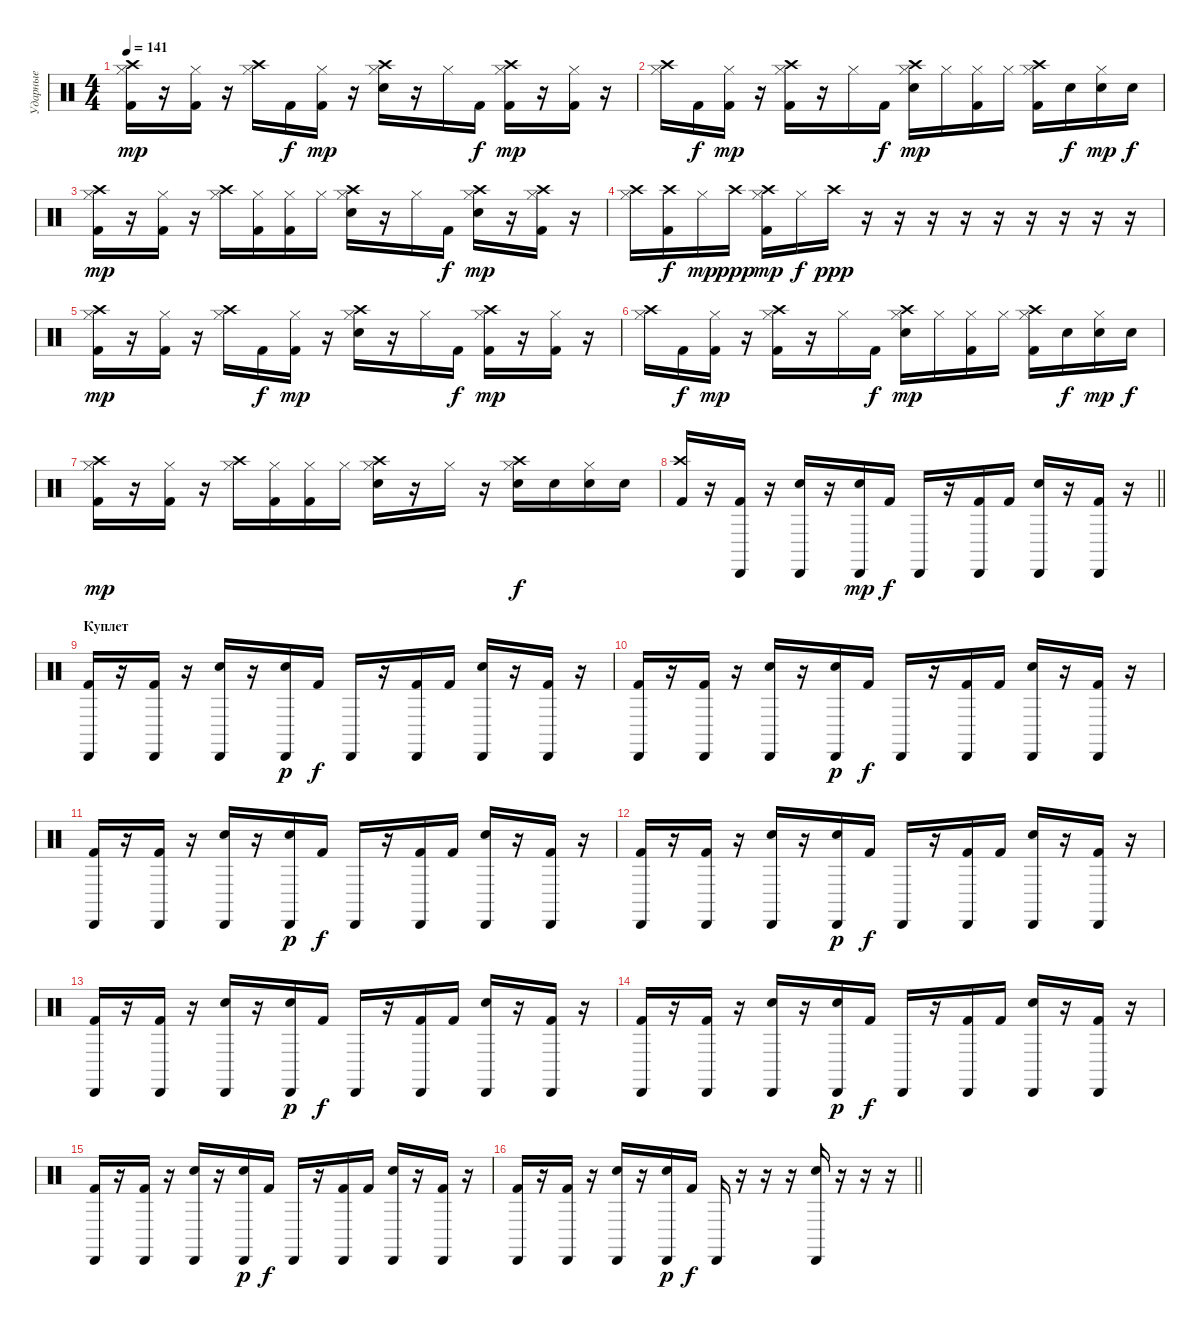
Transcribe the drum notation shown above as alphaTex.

\track ("Ударные" "Ударные") {instrument percussion}
\staff {score}
\articulation defaults
\ts (4 4)
\section ("" "")
\tempo 141
\clef neutral
\ks c
("Crash high (hit)" "Hi-Hat (closed)" "Kick (hit) 2").16{dy mp} r.16 ("Hi-Hat (closed)" "Kick (hit) 2").16 r.16 ("Crash high (hit)" "Hi-Hat (closed)").16 "Kick (hit) 2".16{dy f} ("Hi-Hat (closed)" "Kick (hit) 2").16{dy mp} r.16 ("Crash high (hit)" "Hi-Hat (closed)" "Electric Snare (hit)").16 r.16 "Hi-Hat (closed)".16 "Kick (hit) 2".16{dy f} ("Crash high (hit)" "Hi-Hat (closed)" "Kick (hit) 2").16{dy mp} r.16 ("Hi-Hat (closed)" "Kick (hit) 2").16 r.16 |
("Crash high (hit)" "Hi-Hat (closed)").16 "Kick (hit) 2".16{dy f} ("Hi-Hat (closed)" "Kick (hit) 2").16{dy mp} r.16 ("Crash high (hit)" "Hi-Hat (closed)" "Kick (hit) 2").16 r.16 "Hi-Hat (closed)".16 "Kick (hit) 2".16{dy f} ("Crash high (hit)" "Hi-Hat (closed)" "Electric Snare (hit)").16{dy mp} "Hi-Hat (closed)".16 ("Hi-Hat (closed)" "Kick (hit) 2").16 "Hi-Hat (closed)".16 ("Crash high (hit)" "Hi-Hat (closed)" "Kick (hit) 2").16 "Electric Snare (hit)".16{dy f} ("Hi-Hat (closed)" "Electric Snare (hit)").16{dy mp} "Electric Snare (hit)".16{dy f} |
("Crash high (hit)" "Hi-Hat (closed)" "Kick (hit) 2").16{dy mp} r.16 ("Hi-Hat (closed)" "Kick (hit) 2").16 r.16 ("Crash high (hit)" "Hi-Hat (closed)").16 ("Hi-Hat (closed)" "Kick (hit) 2").16 ("Hi-Hat (closed)" "Kick (hit) 2").16 "Hi-Hat (closed)".16 ("Crash high (hit)" "Hi-Hat (closed)" "Electric Snare (hit)").16 r.16 "Hi-Hat (closed)".16 "Kick (hit) 2".16{dy f} ("Crash high (hit)" "Hi-Hat (closed)" "Electric Snare (hit)").16{dy mp} r.16 ("Crash high (hit)" "Hi-Hat (closed)" "Kick (hit) 2").16 r.16 |
("Crash high (hit)" "Hi-Hat (closed)").16 ("Crash high (hit)" "Kick (hit) 2").16{dy f} "Hi-Hat (closed)".16{dy mp} "Crash high (hit)".16{dy ppp} ("Crash high (hit)" "Hi-Hat (closed)" "Kick (hit) 2").16{dy mp} "Hi-Hat (closed)".16{dy f} "Crash high (hit)".16{dy ppp} r.16 r.16 r.16 r.16 r.16 r.16 r.16 r.16 r.16 |
("Crash high (hit)" "Hi-Hat (closed)" "Kick (hit) 2").16{dy mp} r.16 ("Hi-Hat (closed)" "Kick (hit) 2").16 r.16 ("Crash high (hit)" "Hi-Hat (closed)").16 "Kick (hit) 2".16{dy f} ("Hi-Hat (closed)" "Kick (hit) 2").16{dy mp} r.16 ("Crash high (hit)" "Hi-Hat (closed)" "Electric Snare (hit)").16 r.16 "Hi-Hat (closed)".16 "Kick (hit) 2".16{dy f} ("Crash high (hit)" "Hi-Hat (closed)" "Kick (hit) 2").16{dy mp} r.16 ("Hi-Hat (closed)" "Kick (hit) 2").16 r.16 |
("Crash high (hit)" "Hi-Hat (closed)").16 "Kick (hit) 2".16{dy f} ("Hi-Hat (closed)" "Kick (hit) 2").16{dy mp} r.16 ("Crash high (hit)" "Hi-Hat (closed)" "Kick (hit) 2").16 r.16 "Hi-Hat (closed)".16 "Kick (hit) 2".16{dy f} ("Crash high (hit)" "Hi-Hat (closed)" "Electric Snare (hit)").16{dy mp} "Hi-Hat (closed)".16 ("Hi-Hat (closed)" "Kick (hit) 2").16 "Hi-Hat (closed)".16 ("Crash high (hit)" "Hi-Hat (closed)" "Kick (hit) 2").16 "Electric Snare (hit)".16{dy f} ("Hi-Hat (closed)" "Electric Snare (hit)").16{dy mp} "Electric Snare (hit)".16{dy f} |
("Crash high (hit)" "Hi-Hat (closed)" "Kick (hit) 2").16{dy mp} r.16 ("Hi-Hat (closed)" "Kick (hit) 2").16 r.16 ("Crash high (hit)" "Hi-Hat (closed)").16 ("Hi-Hat (closed)" "Kick (hit) 2").16 ("Hi-Hat (closed)" "Kick (hit) 2").16 "Hi-Hat (closed)".16 ("Crash high (hit)" "Hi-Hat (closed)" "Electric Snare (hit)").16 r.16 "Hi-Hat (closed)".16 r.16 ("Crash high (hit)" "Hi-Hat (closed)" "Electric Snare (hit)").16{dy f} "Electric Snare (hit)".16 ("Hi-Hat (closed)" "Electric Snare (hit)").16 "Electric Snare (hit)".16 |
\barLineRight lightlight
("Crash high (hit)" "Kick (hit) 2").16{volume 0} r.16 ("Cabasa (hit)" "Kick (hit) 2").16 r.16 ("Cabasa (hit)" "Electric Snare (hit)").16 r.16 ("Cabasa (hit)" "Electric Snare (hit)").16{dy mp} "Kick (hit) 2".16{dy f} "Cabasa (hit)".16 r.16 ("Cabasa (hit)" "Kick (hit) 2").16 "Kick (hit) 2".16 ("Cabasa (hit)" "Electric Snare (hit)").16 r.16 ("Cabasa (hit)" "Kick (hit) 2").16 r.16 |
\section ("" "Куплет")
("Cabasa (hit)" "Kick (hit) 2").16{volume 12} r.16 ("Cabasa (hit)" "Kick (hit) 2").16 r.16 ("Cabasa (hit)" "Electric Snare (hit)").16 r.16 ("Cabasa (hit)" "Electric Snare (hit)").16{dy p} "Kick (hit) 2".16{dy f} "Cabasa (hit)".16 r.16 ("Cabasa (hit)" "Kick (hit) 2").16 "Kick (hit) 2".16 ("Cabasa (hit)" "Electric Snare (hit)").16 r.16 ("Cabasa (hit)" "Kick (hit) 2").16 r.16 |
("Cabasa (hit)" "Kick (hit) 2").16 r.16 ("Cabasa (hit)" "Kick (hit) 2").16 r.16 ("Cabasa (hit)" "Electric Snare (hit)").16 r.16 ("Cabasa (hit)" "Electric Snare (hit)").16{dy p} "Kick (hit) 2".16{dy f} "Cabasa (hit)".16 r.16 ("Cabasa (hit)" "Kick (hit) 2").16 "Kick (hit) 2".16 ("Cabasa (hit)" "Electric Snare (hit)").16 r.16 ("Cabasa (hit)" "Kick (hit) 2").16 r.16 |
("Cabasa (hit)" "Kick (hit) 2").16 r.16 ("Cabasa (hit)" "Kick (hit) 2").16 r.16 ("Cabasa (hit)" "Electric Snare (hit)").16 r.16 ("Cabasa (hit)" "Electric Snare (hit)").16{dy p} "Kick (hit) 2".16{dy f} "Cabasa (hit)".16 r.16 ("Cabasa (hit)" "Kick (hit) 2").16 "Kick (hit) 2".16 ("Cabasa (hit)" "Electric Snare (hit)").16 r.16 ("Cabasa (hit)" "Kick (hit) 2").16 r.16 |
("Cabasa (hit)" "Kick (hit) 2").16 r.16 ("Cabasa (hit)" "Kick (hit) 2").16 r.16 ("Cabasa (hit)" "Electric Snare (hit)").16 r.16 ("Cabasa (hit)" "Electric Snare (hit)").16{dy p} "Kick (hit) 2".16{dy f} "Cabasa (hit)".16 r.16 ("Cabasa (hit)" "Kick (hit) 2").16 "Kick (hit) 2".16 ("Cabasa (hit)" "Electric Snare (hit)").16 r.16 ("Cabasa (hit)" "Kick (hit) 2").16 r.16 |
("Cabasa (hit)" "Kick (hit) 2").16 r.16 ("Cabasa (hit)" "Kick (hit) 2").16 r.16 ("Cabasa (hit)" "Electric Snare (hit)").16 r.16 ("Cabasa (hit)" "Electric Snare (hit)").16{dy p} "Kick (hit) 2".16{dy f} "Cabasa (hit)".16 r.16 ("Cabasa (hit)" "Kick (hit) 2").16 "Kick (hit) 2".16 ("Cabasa (hit)" "Electric Snare (hit)").16 r.16 ("Cabasa (hit)" "Kick (hit) 2").16 r.16 |
("Cabasa (hit)" "Kick (hit) 2").16 r.16 ("Cabasa (hit)" "Kick (hit) 2").16 r.16 ("Cabasa (hit)" "Electric Snare (hit)").16 r.16 ("Cabasa (hit)" "Electric Snare (hit)").16{dy p} "Kick (hit) 2".16{dy f} "Cabasa (hit)".16 r.16 ("Cabasa (hit)" "Kick (hit) 2").16 "Kick (hit) 2".16 ("Cabasa (hit)" "Electric Snare (hit)").16 r.16 ("Cabasa (hit)" "Kick (hit) 2").16 r.16 |
("Cabasa (hit)" "Kick (hit) 2").16 r.16 ("Cabasa (hit)" "Kick (hit) 2").16 r.16 ("Cabasa (hit)" "Electric Snare (hit)").16 r.16 ("Cabasa (hit)" "Electric Snare (hit)").16{dy p} "Kick (hit) 2".16{dy f} "Cabasa (hit)".16 r.16 ("Cabasa (hit)" "Kick (hit) 2").16 "Kick (hit) 2".16 ("Cabasa (hit)" "Electric Snare (hit)").16 r.16 ("Cabasa (hit)" "Kick (hit) 2").16 r.16 |
\barLineRight lightlight
("Cabasa (hit)" "Kick (hit) 2").16 r.16 ("Cabasa (hit)" "Kick (hit) 2").16 r.16 ("Cabasa (hit)" "Electric Snare (hit)").16 r.16 ("Cabasa (hit)" "Electric Snare (hit)").16{dy p} "Kick (hit) 2".16{dy f} "Cabasa (hit)".16 r.16 r.16 r.16 ("Cabasa (hit)" "Electric Snare (hit)").16 r.16 r.16 r.16
